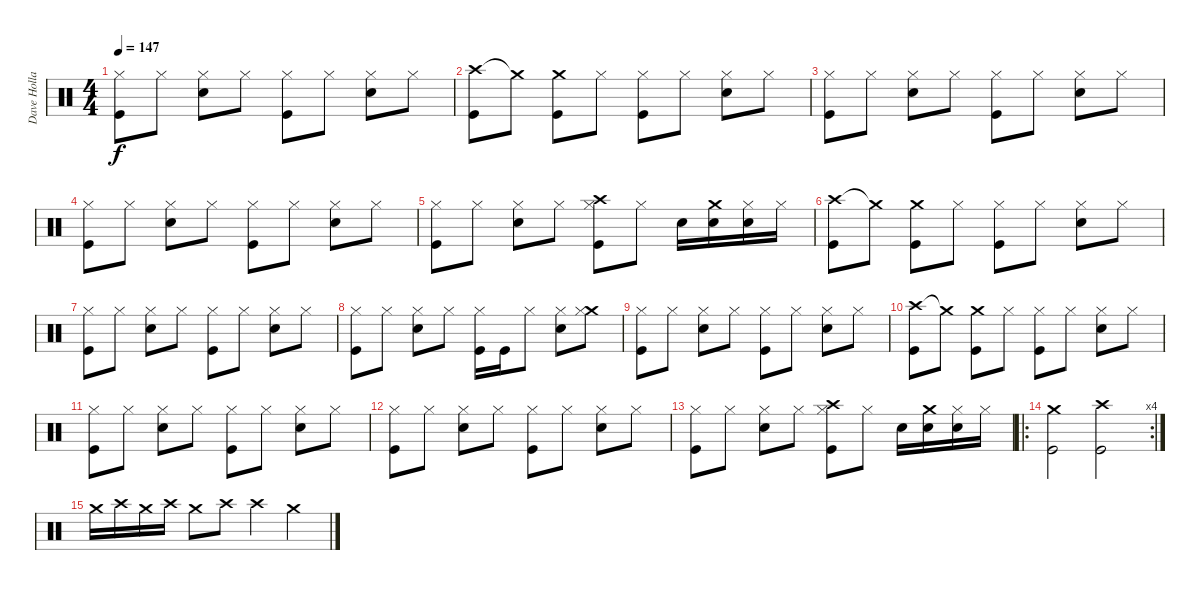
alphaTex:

\track ("Dave Holland" "Dave Holla") {instrument percussion}
\staff {score}
\articulation defaults
\ts (4 4)
\tempo 147
\clef neutral
\ks c
("Kick (hit)" "Hi-Hat (closed)").8{dy f} "Hi-Hat (closed)".8 ("Electric Snare (hit)" "Hi-Hat (closed)").8 "Hi-Hat (closed)".8 ("Kick (hit)" "Hi-Hat (closed)").8 "Hi-Hat (closed)".8 ("Electric Snare (hit)" "Hi-Hat (closed)").8 "Hi-Hat (closed)".8 |
("Crash high (hit)" "Kick (hit)").8 "Crash medium (hit)"{t}.8 ("Crash medium (hit)" "Kick (hit)").8 "Hi-Hat (closed)".8 ("Kick (hit)" "Hi-Hat (closed)").8 "Hi-Hat (closed)".8 ("Electric Snare (hit)" "Hi-Hat (closed)").8 "Hi-Hat (closed)".8 |
("Kick (hit)" "Hi-Hat (closed)").8 "Hi-Hat (closed)".8 ("Electric Snare (hit)" "Hi-Hat (closed)").8 "Hi-Hat (closed)".8 ("Kick (hit)" "Hi-Hat (closed)").8 "Hi-Hat (closed)".8 ("Electric Snare (hit)" "Hi-Hat (closed)").8 "Hi-Hat (closed)".8 |
("Kick (hit)" "Hi-Hat (closed)").8 "Hi-Hat (closed)".8 ("Electric Snare (hit)" "Hi-Hat (closed)").8 "Hi-Hat (closed)".8 ("Kick (hit)" "Hi-Hat (closed)").8 "Hi-Hat (closed)".8 ("Electric Snare (hit)" "Hi-Hat (closed)").8 "Hi-Hat (closed)".8 |
("Kick (hit)" "Hi-Hat (closed)").8 "Hi-Hat (closed)".8 ("Electric Snare (hit)" "Hi-Hat (closed)").8 "Hi-Hat (closed)".8 ("Kick (hit)" "Crash high (hit)" "Hi-Hat (closed)").8 "Hi-Hat (closed)".8 "Electric Snare (hit)".16 ("Electric Snare (hit)" "Crash medium (hit)").16 ("Electric Snare (hit)" "Hi-Hat (closed)").16 "Hi-Hat (closed)".16 |
("Crash high (hit)" "Kick (hit)").8 "Crash medium (hit)"{t}.8 ("Crash medium (hit)" "Kick (hit)").8 "Hi-Hat (closed)".8 ("Kick (hit)" "Hi-Hat (closed)").8 "Hi-Hat (closed)".8 ("Electric Snare (hit)" "Hi-Hat (closed)").8 "Hi-Hat (closed)".8 |
("Kick (hit)" "Hi-Hat (closed)").8 "Hi-Hat (closed)".8 ("Electric Snare (hit)" "Hi-Hat (closed)").8 "Hi-Hat (closed)".8 ("Kick (hit)" "Hi-Hat (closed)").8 "Hi-Hat (closed)".8 ("Electric Snare (hit)" "Hi-Hat (closed)").8 "Hi-Hat (closed)".8 |
("Kick (hit)" "Hi-Hat (closed)").8 "Hi-Hat (closed)".8 ("Electric Snare (hit)" "Hi-Hat (closed)").8 "Hi-Hat (closed)".8 ("Kick (hit)" "Hi-Hat (closed)").16 "Kick (hit)".16 "Hi-Hat (closed)".8 ("Electric Snare (hit)" "Hi-Hat (closed)").8 ("Crash medium (hit)" "Hi-Hat (closed)").8 |
("Kick (hit)" "Hi-Hat (closed)").8 "Hi-Hat (closed)".8 ("Electric Snare (hit)" "Hi-Hat (closed)").8 "Hi-Hat (closed)".8 ("Kick (hit)" "Hi-Hat (closed)").8 "Hi-Hat (closed)".8 ("Electric Snare (hit)" "Hi-Hat (closed)").8 "Hi-Hat (closed)".8 |
("Crash high (hit)" "Kick (hit)").8 "Crash medium (hit)"{t}.8 ("Crash medium (hit)" "Kick (hit)").8 "Hi-Hat (closed)".8 ("Kick (hit)" "Hi-Hat (closed)").8 "Hi-Hat (closed)".8 ("Electric Snare (hit)" "Hi-Hat (closed)").8 "Hi-Hat (closed)".8 |
("Kick (hit)" "Hi-Hat (closed)").8 "Hi-Hat (closed)".8 ("Electric Snare (hit)" "Hi-Hat (closed)").8 "Hi-Hat (closed)".8 ("Kick (hit)" "Hi-Hat (closed)").8 "Hi-Hat (closed)".8 ("Electric Snare (hit)" "Hi-Hat (closed)").8 "Hi-Hat (closed)".8 |
("Kick (hit)" "Hi-Hat (closed)").8 "Hi-Hat (closed)".8 ("Electric Snare (hit)" "Hi-Hat (closed)").8 "Hi-Hat (closed)".8 ("Kick (hit)" "Hi-Hat (closed)").8 "Hi-Hat (closed)".8 ("Electric Snare (hit)" "Hi-Hat (closed)").8 "Hi-Hat (closed)".8 |
("Kick (hit)" "Hi-Hat (closed)").8 "Hi-Hat (closed)".8 ("Electric Snare (hit)" "Hi-Hat (closed)").8 "Hi-Hat (closed)".8 ("Kick (hit)" "Crash high (hit)" "Hi-Hat (closed)").8 "Hi-Hat (closed)".8 "Electric Snare (hit)".16 ("Electric Snare (hit)" "Crash medium (hit)").16 ("Electric Snare (hit)" "Hi-Hat (closed)").16 "Hi-Hat (closed)".16 |
\ro
\rc 4
("Kick (hit)" "Crash medium (hit)").2 ("Kick (hit)" "Crash high (hit)").2 |
"Crash medium (hit)".16 "Crash high (hit)".16 "Crash medium (hit)".16 "Crash high (hit)".16 "Crash medium (hit)".8 "Crash high (hit)".8 "Crash high (hit)".4 "Crash medium (hit)".4
